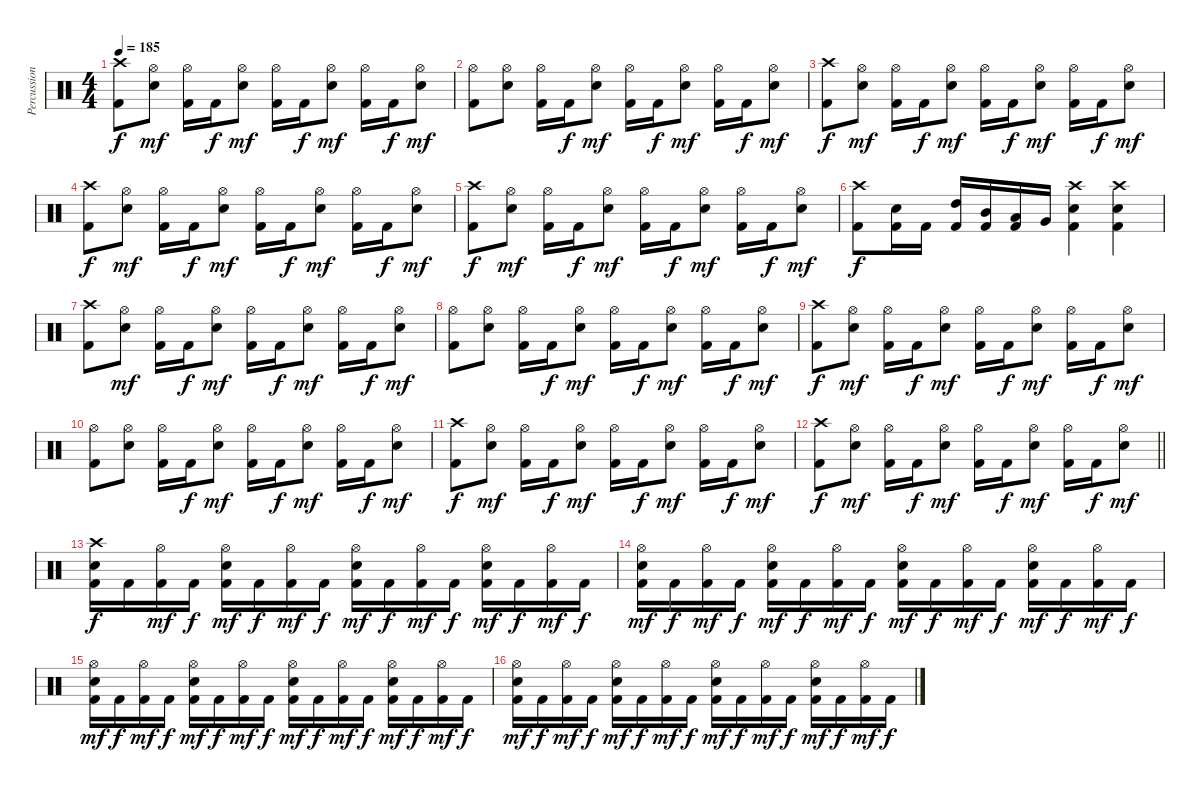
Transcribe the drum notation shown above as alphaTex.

\track ("Percussion" "Percussion") {instrument percussion}
\staff {score}
\articulation defaults
\ts (4 4)
\tempo 185
\clef neutral
\ks c
("Crash high (hit)" "Kick (hit) 2").8{dy f} ("Hi-Hat (open)" "Electric Snare (hit)").8{dy mf} ("Hi-Hat (open)" "Kick (hit) 2").16 "Kick (hit) 2".16{dy f} ("Hi-Hat (open)" "Electric Snare (hit)").8{dy mf} ("Hi-Hat (open)" "Kick (hit) 2").16 "Kick (hit) 2".16{dy f} ("Hi-Hat (open)" "Electric Snare (hit)").8{dy mf} ("Hi-Hat (open)" "Kick (hit) 2").16 "Kick (hit) 2".16{dy f} ("Hi-Hat (open)" "Electric Snare (hit)").8{dy mf} |
("Hi-Hat (open)" "Kick (hit) 2").8 ("Hi-Hat (open)" "Electric Snare (hit)").8 ("Hi-Hat (open)" "Kick (hit) 2").16 "Kick (hit) 2".16{dy f} ("Hi-Hat (open)" "Electric Snare (hit)").8{dy mf} ("Hi-Hat (open)" "Kick (hit) 2").16 "Kick (hit) 2".16{dy f} ("Hi-Hat (open)" "Electric Snare (hit)").8{dy mf} ("Hi-Hat (open)" "Kick (hit) 2").16 "Kick (hit) 2".16{dy f} ("Hi-Hat (open)" "Electric Snare (hit)").8{dy mf} |
("Crash high (hit)" "Kick (hit) 2").8{dy f} ("Hi-Hat (open)" "Electric Snare (hit)").8{dy mf} ("Hi-Hat (open)" "Kick (hit) 2").16 "Kick (hit) 2".16{dy f} ("Hi-Hat (open)" "Electric Snare (hit)").8{dy mf} ("Hi-Hat (open)" "Kick (hit) 2").16 "Kick (hit) 2".16{dy f} ("Hi-Hat (open)" "Electric Snare (hit)").8{dy mf} ("Hi-Hat (open)" "Kick (hit) 2").16 "Kick (hit) 2".16{dy f} ("Hi-Hat (open)" "Electric Snare (hit)").8{dy mf} |
("Crash high (hit)" "Kick (hit) 2").8{dy f} ("Hi-Hat (open)" "Electric Snare (hit)").8{dy mf} ("Hi-Hat (open)" "Kick (hit) 2").16 "Kick (hit) 2".16{dy f} ("Hi-Hat (open)" "Electric Snare (hit)").8{dy mf} ("Hi-Hat (open)" "Kick (hit) 2").16 "Kick (hit) 2".16{dy f} ("Hi-Hat (open)" "Electric Snare (hit)").8{dy mf} ("Hi-Hat (open)" "Kick (hit) 2").16 "Kick (hit) 2".16{dy f} ("Hi-Hat (open)" "Electric Snare (hit)").8{dy mf} |
("Crash high (hit)" "Kick (hit) 2").8{dy f} ("Hi-Hat (open)" "Electric Snare (hit)").8{dy mf} ("Hi-Hat (open)" "Kick (hit) 2").16 "Kick (hit) 2".16{dy f} ("Hi-Hat (open)" "Electric Snare (hit)").8{dy mf} ("Hi-Hat (open)" "Kick (hit) 2").16 "Kick (hit) 2".16{dy f} ("Hi-Hat (open)" "Electric Snare (hit)").8{dy mf} ("Hi-Hat (open)" "Kick (hit) 2").16 "Kick (hit) 2".16{dy f} ("Hi-Hat (open)" "Electric Snare (hit)").8{dy mf} |
("Crash high (hit)" "Kick (hit) 2").8{dy f} ("Electric Snare (hit)" "Kick (hit) 2").16 "Kick (hit) 2".16 ("High Tom (hit)" "Kick (hit) 2").16 ("Mid Tom (hit)" "Kick (hit) 2").16 ("Low Tom (hit)" "Kick (hit) 2").16 "Very Low Tom (hit)".16 ("Crash high (hit)" "Electric Snare (hit)" "Kick (hit) 2").4 ("Crash high (hit)" "Electric Snare (hit)" "Kick (hit) 2").4 |
("Crash high (hit)" "Kick (hit) 2").8 ("Hi-Hat (open)" "Electric Snare (hit)").8{dy mf} ("Hi-Hat (open)" "Kick (hit) 2").16 "Kick (hit) 2".16{dy f} ("Hi-Hat (open)" "Electric Snare (hit)").8{dy mf} ("Hi-Hat (open)" "Kick (hit) 2").16 "Kick (hit) 2".16{dy f} ("Hi-Hat (open)" "Electric Snare (hit)").8{dy mf} ("Hi-Hat (open)" "Kick (hit) 2").16 "Kick (hit) 2".16{dy f} ("Hi-Hat (open)" "Electric Snare (hit)").8{dy mf} |
("Hi-Hat (open)" "Kick (hit) 2").8 ("Hi-Hat (open)" "Electric Snare (hit)").8 ("Hi-Hat (open)" "Kick (hit) 2").16 "Kick (hit) 2".16{dy f} ("Hi-Hat (open)" "Electric Snare (hit)").8{dy mf} ("Hi-Hat (open)" "Kick (hit) 2").16 "Kick (hit) 2".16{dy f} ("Hi-Hat (open)" "Electric Snare (hit)").8{dy mf} ("Hi-Hat (open)" "Kick (hit) 2").16 "Kick (hit) 2".16{dy f} ("Hi-Hat (open)" "Electric Snare (hit)").8{dy mf} |
("Crash high (hit)" "Kick (hit) 2").8{dy f} ("Hi-Hat (open)" "Electric Snare (hit)").8{dy mf} ("Hi-Hat (open)" "Kick (hit) 2").16 "Kick (hit) 2".16{dy f} ("Hi-Hat (open)" "Electric Snare (hit)").8{dy mf} ("Hi-Hat (open)" "Kick (hit) 2").16 "Kick (hit) 2".16{dy f} ("Hi-Hat (open)" "Electric Snare (hit)").8{dy mf} ("Hi-Hat (open)" "Kick (hit) 2").16 "Kick (hit) 2".16{dy f} ("Hi-Hat (open)" "Electric Snare (hit)").8{dy mf} |
("Hi-Hat (open)" "Kick (hit) 2").8 ("Hi-Hat (open)" "Electric Snare (hit)").8 ("Hi-Hat (open)" "Kick (hit) 2").16 "Kick (hit) 2".16{dy f} ("Hi-Hat (open)" "Electric Snare (hit)").8{dy mf} ("Hi-Hat (open)" "Kick (hit) 2").16 "Kick (hit) 2".16{dy f} ("Hi-Hat (open)" "Electric Snare (hit)").8{dy mf} ("Hi-Hat (open)" "Kick (hit) 2").16 "Kick (hit) 2".16{dy f} ("Hi-Hat (open)" "Electric Snare (hit)").8{dy mf} |
("Crash high (hit)" "Kick (hit) 2").8{dy f} ("Hi-Hat (open)" "Electric Snare (hit)").8{dy mf} ("Hi-Hat (open)" "Kick (hit) 2").16 "Kick (hit) 2".16{dy f} ("Hi-Hat (open)" "Electric Snare (hit)").8{dy mf} ("Hi-Hat (open)" "Kick (hit) 2").16 "Kick (hit) 2".16{dy f} ("Hi-Hat (open)" "Electric Snare (hit)").8{dy mf} ("Hi-Hat (open)" "Kick (hit) 2").16 "Kick (hit) 2".16{dy f} ("Hi-Hat (open)" "Electric Snare (hit)").8{dy mf} |
\barLineRight lightlight
("Crash high (hit)" "Kick (hit) 2").8{dy f} ("Hi-Hat (open)" "Electric Snare (hit)").8{dy mf} ("Hi-Hat (open)" "Kick (hit) 2").16 "Kick (hit) 2".16{dy f} ("Hi-Hat (open)" "Electric Snare (hit)").8{dy mf} ("Hi-Hat (open)" "Kick (hit) 2").16 "Kick (hit) 2".16{dy f} ("Hi-Hat (open)" "Electric Snare (hit)").8{dy mf} ("Hi-Hat (open)" "Kick (hit) 2").16 "Kick (hit) 2".16{dy f} ("Hi-Hat (open)" "Electric Snare (hit)").8{dy mf} |
\section ("" "")
("Crash high (hit)" "Electric Snare (hit)" "Kick (hit) 2").16{dy f} "Kick (hit) 2".16 ("Hi-Hat (open)" "Kick (hit) 2").16{dy mf} "Kick (hit) 2".16{dy f} ("Hi-Hat (open)" "Electric Snare (hit)" "Kick (hit) 2").16{dy mf} "Kick (hit) 2".16{dy f} ("Hi-Hat (open)" "Kick (hit) 2").16{dy mf} "Kick (hit) 2".16{dy f} ("Hi-Hat (open)" "Electric Snare (hit)" "Kick (hit) 2").16{dy mf} "Kick (hit) 2".16{dy f} ("Hi-Hat (open)" "Kick (hit) 2").16{dy mf} "Kick (hit) 2".16{dy f} ("Hi-Hat (open)" "Electric Snare (hit)" "Kick (hit) 2").16{dy mf} "Kick (hit) 2".16{dy f} ("Hi-Hat (open)" "Kick (hit) 2").16{dy mf} "Kick (hit) 2".16{dy f} |
("Hi-Hat (open)" "Electric Snare (hit)" "Kick (hit) 2").16{dy mf} "Kick (hit) 2".16{dy f} ("Hi-Hat (open)" "Kick (hit) 2").16{dy mf} "Kick (hit) 2".16{dy f} ("Hi-Hat (open)" "Electric Snare (hit)" "Kick (hit) 2").16{dy mf} "Kick (hit) 2".16{dy f} ("Hi-Hat (open)" "Kick (hit) 2").16{dy mf} "Kick (hit) 2".16{dy f} ("Hi-Hat (open)" "Electric Snare (hit)" "Kick (hit) 2").16{dy mf} "Kick (hit) 2".16{dy f} ("Hi-Hat (open)" "Kick (hit) 2").16{dy mf} "Kick (hit) 2".16{dy f} ("Hi-Hat (open)" "Electric Snare (hit)" "Kick (hit) 2").16{dy mf} "Kick (hit) 2".16{dy f} ("Hi-Hat (open)" "Kick (hit) 2").16{dy mf} "Kick (hit) 2".16{dy f} |
("Hi-Hat (open)" "Electric Snare (hit)" "Kick (hit) 2").16{dy mf} "Kick (hit) 2".16{dy f} ("Hi-Hat (open)" "Kick (hit) 2").16{dy mf} "Kick (hit) 2".16{dy f} ("Hi-Hat (open)" "Electric Snare (hit)" "Kick (hit) 2").16{dy mf} "Kick (hit) 2".16{dy f} ("Hi-Hat (open)" "Kick (hit) 2").16{dy mf} "Kick (hit) 2".16{dy f} ("Hi-Hat (open)" "Electric Snare (hit)" "Kick (hit) 2").16{dy mf} "Kick (hit) 2".16{dy f} ("Hi-Hat (open)" "Kick (hit) 2").16{dy mf} "Kick (hit) 2".16{dy f} ("Hi-Hat (open)" "Electric Snare (hit)" "Kick (hit) 2").16{dy mf} "Kick (hit) 2".16{dy f} ("Hi-Hat (open)" "Kick (hit) 2").16{dy mf} "Kick (hit) 2".16{dy f} |
("Hi-Hat (open)" "Electric Snare (hit)" "Kick (hit) 2").16{dy mf} "Kick (hit) 2".16{dy f} ("Hi-Hat (open)" "Kick (hit) 2").16{dy mf} "Kick (hit) 2".16{dy f} ("Hi-Hat (open)" "Electric Snare (hit)" "Kick (hit) 2").16{dy mf} "Kick (hit) 2".16{dy f} ("Hi-Hat (open)" "Kick (hit) 2").16{dy mf} "Kick (hit) 2".16{dy f} ("Hi-Hat (open)" "Electric Snare (hit)" "Kick (hit) 2").16{dy mf} "Kick (hit) 2".16{dy f} ("Hi-Hat (open)" "Kick (hit) 2").16{dy mf} "Kick (hit) 2".16{dy f} ("Hi-Hat (open)" "Electric Snare (hit)" "Kick (hit) 2").16{dy mf} "Kick (hit) 2".16{dy f} ("Hi-Hat (open)" "Kick (hit) 2").16{dy mf} "Kick (hit) 2".16{dy f}
